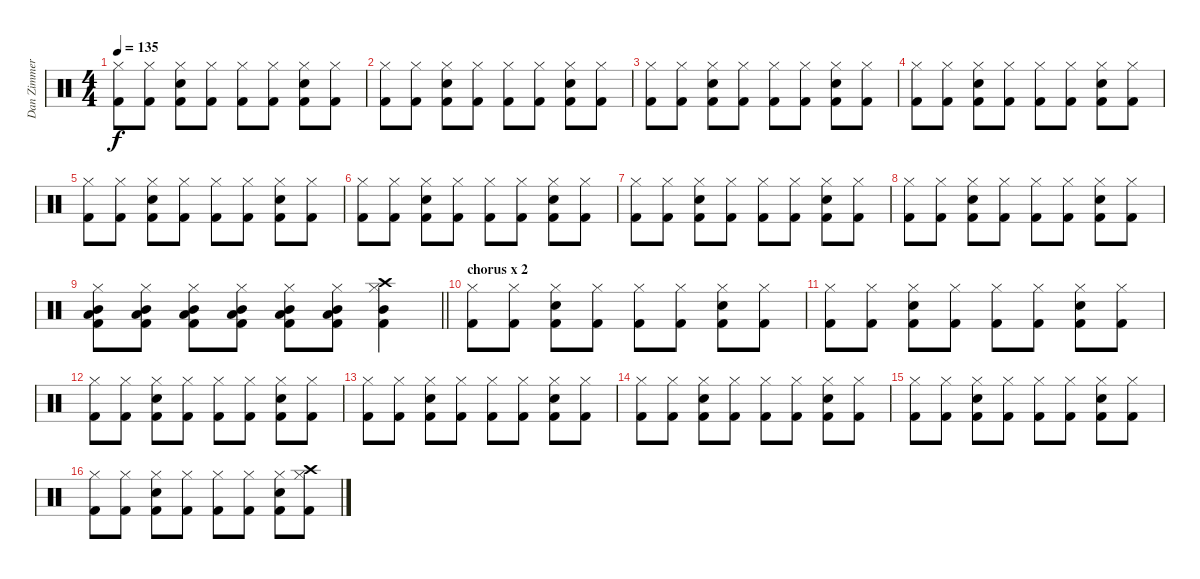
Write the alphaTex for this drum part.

\track ("Dan Zimmerman" "Dan Zimmer") {instrument percussion}
\staff {score}
\articulation defaults
\ts (4 4)
\tempo 135
\clef neutral
\ks c
("Hi-Hat (closed)" "Kick (hit) 2").8{dy f} ("Hi-Hat (closed)" "Kick (hit) 2").8 ("Snare (hit) 2" "Hi-Hat (closed)" "Kick (hit) 2").8 ("Hi-Hat (closed)" "Kick (hit) 2").8 ("Hi-Hat (closed)" "Kick (hit) 2").8 ("Hi-Hat (closed)" "Kick (hit) 2").8 ("Snare (hit) 2" "Hi-Hat (closed)" "Kick (hit) 2").8 ("Hi-Hat (closed)" "Kick (hit) 2").8 |
("Hi-Hat (closed)" "Kick (hit) 2").8 ("Hi-Hat (closed)" "Kick (hit) 2").8 ("Snare (hit) 2" "Hi-Hat (closed)" "Kick (hit) 2").8 ("Hi-Hat (closed)" "Kick (hit) 2").8 ("Hi-Hat (closed)" "Kick (hit) 2").8 ("Hi-Hat (closed)" "Kick (hit) 2").8 ("Snare (hit) 2" "Hi-Hat (closed)" "Kick (hit) 2").8 ("Hi-Hat (closed)" "Kick (hit) 2").8 |
("Hi-Hat (closed)" "Kick (hit) 2").8 ("Hi-Hat (closed)" "Kick (hit) 2").8 ("Snare (hit) 2" "Hi-Hat (closed)" "Kick (hit) 2").8 ("Hi-Hat (closed)" "Kick (hit) 2").8 ("Hi-Hat (closed)" "Kick (hit) 2").8 ("Hi-Hat (closed)" "Kick (hit) 2").8 ("Snare (hit) 2" "Hi-Hat (closed)" "Kick (hit) 2").8 ("Hi-Hat (closed)" "Kick (hit) 2").8 |
("Hi-Hat (closed)" "Kick (hit) 2").8 ("Hi-Hat (closed)" "Kick (hit) 2").8 ("Snare (hit) 2" "Hi-Hat (closed)" "Kick (hit) 2").8 ("Hi-Hat (closed)" "Kick (hit) 2").8 ("Hi-Hat (closed)" "Kick (hit) 2").8 ("Hi-Hat (closed)" "Kick (hit) 2").8 ("Snare (hit) 2" "Hi-Hat (closed)" "Kick (hit) 2").8 ("Hi-Hat (closed)" "Kick (hit) 2").8 |
("Hi-Hat (closed)" "Kick (hit) 2").8 ("Hi-Hat (closed)" "Kick (hit) 2").8 ("Snare (hit) 2" "Hi-Hat (closed)" "Kick (hit) 2").8 ("Hi-Hat (closed)" "Kick (hit) 2").8 ("Hi-Hat (closed)" "Kick (hit) 2").8 ("Hi-Hat (closed)" "Kick (hit) 2").8 ("Snare (hit) 2" "Hi-Hat (closed)" "Kick (hit) 2").8 ("Hi-Hat (closed)" "Kick (hit) 2").8 |
("Hi-Hat (closed)" "Kick (hit) 2").8 ("Hi-Hat (closed)" "Kick (hit) 2").8 ("Snare (hit) 2" "Hi-Hat (closed)" "Kick (hit) 2").8 ("Hi-Hat (closed)" "Kick (hit) 2").8 ("Hi-Hat (closed)" "Kick (hit) 2").8 ("Hi-Hat (closed)" "Kick (hit) 2").8 ("Snare (hit) 2" "Hi-Hat (closed)" "Kick (hit) 2").8 ("Hi-Hat (closed)" "Kick (hit) 2").8 |
("Hi-Hat (closed)" "Kick (hit) 2").8 ("Hi-Hat (closed)" "Kick (hit) 2").8 ("Snare (hit) 2" "Hi-Hat (closed)" "Kick (hit) 2").8 ("Hi-Hat (closed)" "Kick (hit) 2").8 ("Hi-Hat (closed)" "Kick (hit) 2").8 ("Hi-Hat (closed)" "Kick (hit) 2").8 ("Snare (hit) 2" "Hi-Hat (closed)" "Kick (hit) 2").8 ("Hi-Hat (closed)" "Kick (hit) 2").8 |
("Hi-Hat (closed)" "Kick (hit) 2").8 ("Hi-Hat (closed)" "Kick (hit) 2").8 ("Snare (hit) 2" "Hi-Hat (closed)" "Kick (hit) 2").8 ("Hi-Hat (closed)" "Kick (hit) 2").8 ("Hi-Hat (closed)" "Kick (hit) 2").8 ("Hi-Hat (closed)" "Kick (hit) 2").8 ("Snare (hit) 2" "Hi-Hat (closed)" "Kick (hit) 2").8 ("Hi-Hat (closed)" "Kick (hit) 2").8 |
\barLineRight lightlight
("Hi-Hat (closed)" "Low Tom (hit)" "Mid Tom (hit)" "Kick (hit) 2").8 ("Hi-Hat (closed)" "Low Tom (hit)" "Mid Tom (hit)" "Kick (hit) 2").8 ("Hi-Hat (closed)" "Low Tom (hit)" "Mid Tom (hit)" "Kick (hit) 2").8 ("Hi-Hat (closed)" "Low Tom (hit)" "Mid Tom (hit)" "Kick (hit) 2").8 ("Hi-Hat (closed)" "Low Tom (hit)" "Mid Tom (hit)" "Kick (hit) 2").8 ("Hi-Hat (closed)" "Low Tom (hit)" "Mid Tom (hit)" "Kick (hit) 2").8 ("Hi-Hat (closed)" "Crash high (hit)" "Mid Tom (hit)" "Kick (hit) 2").4 |
\section ("" "chorus x 2")
("Hi-Hat (closed)" "Kick (hit) 2").8 ("Hi-Hat (closed)" "Kick (hit) 2").8 ("Snare (hit) 2" "Hi-Hat (closed)" "Kick (hit) 2").8 ("Hi-Hat (closed)" "Kick (hit) 2").8 ("Hi-Hat (closed)" "Kick (hit) 2").8 ("Hi-Hat (closed)" "Kick (hit) 2").8 ("Snare (hit) 2" "Hi-Hat (closed)" "Kick (hit) 2").8 ("Hi-Hat (closed)" "Kick (hit) 2").8 |
("Hi-Hat (closed)" "Kick (hit) 2").8 ("Hi-Hat (closed)" "Kick (hit) 2").8 ("Snare (hit) 2" "Hi-Hat (closed)" "Kick (hit) 2").8 ("Hi-Hat (closed)" "Kick (hit) 2").8 ("Hi-Hat (closed)" "Kick (hit) 2").8 ("Hi-Hat (closed)" "Kick (hit) 2").8 ("Snare (hit) 2" "Hi-Hat (closed)" "Kick (hit) 2").8 ("Hi-Hat (closed)" "Kick (hit) 2").8 |
("Hi-Hat (closed)" "Kick (hit) 2").8 ("Hi-Hat (closed)" "Kick (hit) 2").8 ("Snare (hit) 2" "Hi-Hat (closed)" "Kick (hit) 2").8 ("Hi-Hat (closed)" "Kick (hit) 2").8 ("Hi-Hat (closed)" "Kick (hit) 2").8 ("Hi-Hat (closed)" "Kick (hit) 2").8 ("Snare (hit) 2" "Hi-Hat (closed)" "Kick (hit) 2").8 ("Hi-Hat (closed)" "Kick (hit) 2").8 |
("Hi-Hat (closed)" "Kick (hit) 2").8 ("Hi-Hat (closed)" "Kick (hit) 2").8 ("Snare (hit) 2" "Hi-Hat (closed)" "Kick (hit) 2").8 ("Hi-Hat (closed)" "Kick (hit) 2").8 ("Hi-Hat (closed)" "Kick (hit) 2").8 ("Hi-Hat (closed)" "Kick (hit) 2").8 ("Snare (hit) 2" "Hi-Hat (closed)" "Kick (hit) 2").8 ("Hi-Hat (closed)" "Kick (hit) 2").8 |
("Hi-Hat (closed)" "Kick (hit) 2").8 ("Hi-Hat (closed)" "Kick (hit) 2").8 ("Snare (hit) 2" "Hi-Hat (closed)" "Kick (hit) 2").8 ("Hi-Hat (closed)" "Kick (hit) 2").8 ("Hi-Hat (closed)" "Kick (hit) 2").8 ("Hi-Hat (closed)" "Kick (hit) 2").8 ("Snare (hit) 2" "Hi-Hat (closed)" "Kick (hit) 2").8 ("Hi-Hat (closed)" "Kick (hit) 2").8 |
("Hi-Hat (closed)" "Kick (hit) 2").8 ("Hi-Hat (closed)" "Kick (hit) 2").8 ("Snare (hit) 2" "Hi-Hat (closed)" "Kick (hit) 2").8 ("Hi-Hat (closed)" "Kick (hit) 2").8 ("Hi-Hat (closed)" "Kick (hit) 2").8 ("Hi-Hat (closed)" "Kick (hit) 2").8 ("Snare (hit) 2" "Hi-Hat (closed)" "Kick (hit) 2").8 ("Hi-Hat (closed)" "Kick (hit) 2").8 |
("Hi-Hat (closed)" "Kick (hit) 2").8 ("Hi-Hat (closed)" "Kick (hit) 2").8 ("Snare (hit) 2" "Hi-Hat (closed)" "Kick (hit) 2").8 ("Hi-Hat (closed)" "Kick (hit) 2").8 ("Hi-Hat (closed)" "Kick (hit) 2").8 ("Hi-Hat (closed)" "Kick (hit) 2").8 ("Snare (hit) 2" "Hi-Hat (closed)" "Kick (hit) 2").8 ("Crash high (hit)" "Hi-Hat (closed)" "Kick (hit) 2").8
